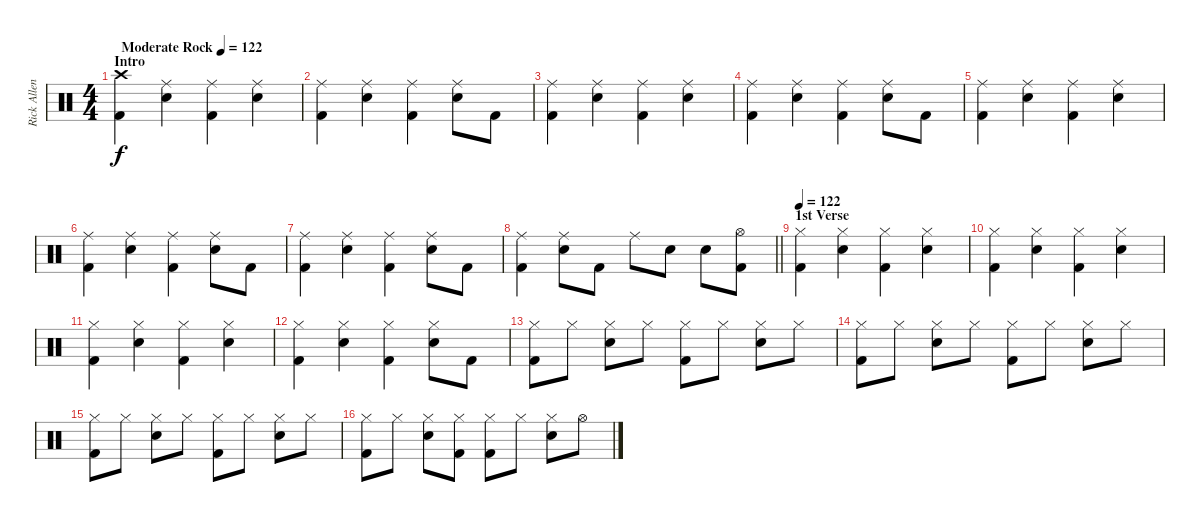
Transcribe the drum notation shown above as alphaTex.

\track ("Rick Allen" "Rick Allen") {instrument percussion}
\staff {score}
\articulation defaults
\ts (4 4)
\section ("" "Intro")
\tempo (122 "Moderate Rock")
\clef neutral
\ks c
("Crash high (hit)" "Kick (hit) 2").4{dy f} ("Ride (middle)" "Electric Snare (hit)").4 ("Ride (middle)" "Kick (hit) 2").4 ("Ride (middle)" "Electric Snare (hit)").4 |
("Ride (middle)" "Kick (hit) 2").4 ("Ride (middle)" "Electric Snare (hit)").4 ("Ride (middle)" "Kick (hit) 2").4 ("Ride (middle)" "Electric Snare (hit)").8 "Kick (hit) 2".8 |
("Ride (middle)" "Kick (hit) 2").4 ("Ride (middle)" "Electric Snare (hit)").4 ("Ride (middle)" "Kick (hit) 2").4 ("Ride (middle)" "Electric Snare (hit)").4 |
("Ride (middle)" "Kick (hit) 2").4 ("Ride (middle)" "Electric Snare (hit)").4 ("Ride (middle)" "Kick (hit) 2").4 ("Ride (middle)" "Electric Snare (hit)").8 "Kick (hit) 2".8 |
("Ride (middle)" "Kick (hit) 2").4 ("Ride (middle)" "Electric Snare (hit)").4 ("Ride (middle)" "Kick (hit) 2").4 ("Ride (middle)" "Electric Snare (hit)").4 |
("Ride (middle)" "Kick (hit) 2").4 ("Ride (middle)" "Electric Snare (hit)").4 ("Ride (middle)" "Kick (hit) 2").4 ("Ride (middle)" "Electric Snare (hit)").8 "Kick (hit) 2".8 |
("Ride (middle)" "Kick (hit) 2").4 ("Ride (middle)" "Electric Snare (hit)").4 ("Ride (middle)" "Kick (hit) 2").4 ("Ride (middle)" "Electric Snare (hit)").8 "Kick (hit) 2".8 |
\barLineRight lightlight
("Ride (middle)" "Kick (hit) 2").4 ("Ride (middle)" "Electric Snare (hit)").8 "Kick (hit) 2".8 "Ride (middle)".8 "Electric Snare (hit)".8 "Electric Snare (hit)".8 ("Hi-Hat (open)" "Kick (hit) 2").8 |
\section ("" "1st Verse")
\tempo 122
("Hi-Hat (closed)" "Kick (hit) 2").4 ("Hi-Hat (closed)" "Electric Snare (hit)").4 ("Hi-Hat (closed)" "Kick (hit) 2").4 ("Hi-Hat (closed)" "Electric Snare (hit)").4 |
("Hi-Hat (closed)" "Kick (hit) 2").4 ("Hi-Hat (closed)" "Electric Snare (hit)").4 ("Hi-Hat (closed)" "Kick (hit) 2").4 ("Hi-Hat (closed)" "Electric Snare (hit)").4 |
("Hi-Hat (closed)" "Kick (hit) 2").4 ("Hi-Hat (closed)" "Electric Snare (hit)").4 ("Hi-Hat (closed)" "Kick (hit) 2").4 ("Hi-Hat (closed)" "Electric Snare (hit)").4 |
("Hi-Hat (closed)" "Kick (hit) 2").4 ("Hi-Hat (closed)" "Electric Snare (hit)").4 ("Hi-Hat (closed)" "Kick (hit) 2").4 ("Hi-Hat (closed)" "Electric Snare (hit)").8 "Kick (hit) 2".8 |
("Hi-Hat (closed)" "Kick (hit) 2").8 "Hi-Hat (closed)".8 ("Hi-Hat (closed)" "Electric Snare (hit)").8 "Hi-Hat (closed)".8 ("Hi-Hat (closed)" "Kick (hit) 2").8 "Hi-Hat (closed)".8 ("Hi-Hat (closed)" "Electric Snare (hit)").8 "Hi-Hat (closed)".8 |
("Hi-Hat (closed)" "Kick (hit) 2").8 "Hi-Hat (closed)".8 ("Hi-Hat (closed)" "Electric Snare (hit)").8 "Hi-Hat (closed)".8 ("Hi-Hat (closed)" "Kick (hit) 2").8 "Hi-Hat (closed)".8 ("Hi-Hat (closed)" "Electric Snare (hit)").8 "Hi-Hat (closed)".8 |
("Hi-Hat (closed)" "Kick (hit) 2").8 "Hi-Hat (closed)".8 ("Hi-Hat (closed)" "Electric Snare (hit)").8 "Hi-Hat (closed)".8 ("Hi-Hat (closed)" "Kick (hit) 2").8 "Hi-Hat (closed)".8 ("Hi-Hat (closed)" "Electric Snare (hit)").8 "Hi-Hat (closed)".8 |
("Hi-Hat (closed)" "Kick (hit) 2").8 "Hi-Hat (closed)".8 ("Hi-Hat (closed)" "Electric Snare (hit)").8 ("Hi-Hat (closed)" "Kick (hit) 2").8 ("Hi-Hat (closed)" "Kick (hit) 2").8 "Hi-Hat (closed)".8 ("Hi-Hat (closed)" "Electric Snare (hit)").8 "Hi-Hat (open)".8
